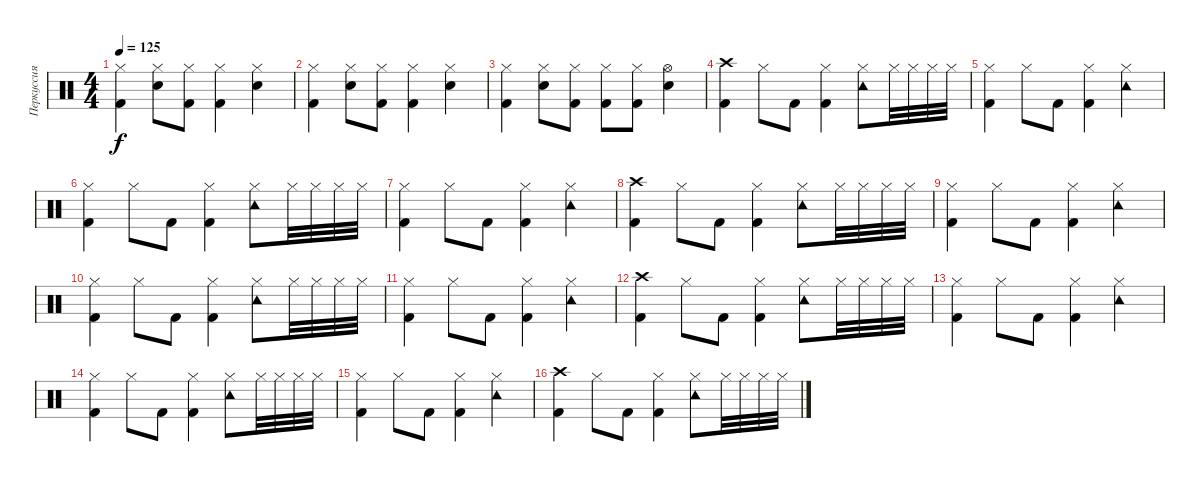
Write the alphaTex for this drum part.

\track ("Перкуссия" "Перкуссия") {instrument percussion}
\staff {score}
\articulation defaults
\ts (4 4)
\tempo 125
\clef neutral
\ks c
("Hi-Hat (closed)" "Kick (hit) 2").4{dy f} ("Hi-Hat (closed)" "Snare (hit) 2").8 ("Hi-Hat (closed)" "Kick (hit) 2").8 ("Hi-Hat (closed)" "Kick (hit) 2").4 ("Hi-Hat (closed)" "Snare (hit) 2").4 |
("Hi-Hat (closed)" "Kick (hit) 2").4 ("Hi-Hat (closed)" "Snare (hit) 2").8 ("Hi-Hat (closed)" "Kick (hit) 2").8 ("Hi-Hat (closed)" "Kick (hit) 2").4 ("Hi-Hat (closed)" "Snare (hit) 2").4 |
("Hi-Hat (closed)" "Kick (hit) 2").4 ("Hi-Hat (closed)" "Snare (hit) 2").8 ("Hi-Hat (closed)" "Kick (hit) 2").8 ("Hi-Hat (closed)" "Kick (hit) 2").8 ("Hi-Hat (closed)" "Kick (hit) 2").8 ("Hi-Hat (open)" "Snare (hit) 2").4 |
("Crash high (hit)" "Kick (hit) 2").4 "Hi-Hat (closed)".8 "Kick (hit) 2".8 ("Hi-Hat (closed)" "Kick (hit) 2").4 ("Hi-Hat (closed)" "Tambourine (hit)").8 "Hi-Hat (closed)".32 "Hi-Hat (closed)".32 "Hi-Hat (closed)".32 "Hi-Hat (closed)".32 |
("Hi-Hat (closed)" "Kick (hit) 2").4 "Hi-Hat (closed)".8 "Kick (hit) 2".8 ("Hi-Hat (closed)" "Kick (hit) 2").4 ("Hi-Hat (closed)" "Tambourine (hit)").4 |
("Hi-Hat (closed)" "Kick (hit) 2").4 "Hi-Hat (closed)".8 "Kick (hit) 2".8 ("Hi-Hat (closed)" "Kick (hit) 2").4 ("Hi-Hat (closed)" "Tambourine (hit)").8 "Hi-Hat (closed)".32 "Hi-Hat (closed)".32 "Hi-Hat (closed)".32 "Hi-Hat (closed)".32 |
("Hi-Hat (closed)" "Kick (hit) 2").4 "Hi-Hat (closed)".8 "Kick (hit) 2".8 ("Hi-Hat (closed)" "Kick (hit) 2").4 ("Hi-Hat (closed)" "Tambourine (hit)").4 |
("Crash high (hit)" "Kick (hit) 2").4 "Hi-Hat (closed)".8 "Kick (hit) 2".8 ("Hi-Hat (closed)" "Kick (hit) 2").4 ("Hi-Hat (closed)" "Tambourine (hit)").8 "Hi-Hat (closed)".32 "Hi-Hat (closed)".32 "Hi-Hat (closed)".32 "Hi-Hat (closed)".32 |
("Hi-Hat (closed)" "Kick (hit) 2").4 "Hi-Hat (closed)".8 "Kick (hit) 2".8 ("Hi-Hat (closed)" "Kick (hit) 2").4 ("Hi-Hat (closed)" "Tambourine (hit)").4 |
("Hi-Hat (closed)" "Kick (hit) 2").4 "Hi-Hat (closed)".8 "Kick (hit) 2".8 ("Hi-Hat (closed)" "Kick (hit) 2").4 ("Hi-Hat (closed)" "Tambourine (hit)").8 "Hi-Hat (closed)".32 "Hi-Hat (closed)".32 "Hi-Hat (closed)".32 "Hi-Hat (closed)".32 |
("Hi-Hat (closed)" "Kick (hit) 2").4 "Hi-Hat (closed)".8 "Kick (hit) 2".8 ("Hi-Hat (closed)" "Kick (hit) 2").4 ("Hi-Hat (closed)" "Tambourine (hit)").4 |
("Crash high (hit)" "Kick (hit) 2").4 "Hi-Hat (closed)".8 "Kick (hit) 2".8 ("Hi-Hat (closed)" "Kick (hit) 2").4 ("Hi-Hat (closed)" "Tambourine (hit)").8 "Hi-Hat (closed)".32 "Hi-Hat (closed)".32 "Hi-Hat (closed)".32 "Hi-Hat (closed)".32 |
("Hi-Hat (closed)" "Kick (hit) 2").4 "Hi-Hat (closed)".8 "Kick (hit) 2".8 ("Hi-Hat (closed)" "Kick (hit) 2").4 ("Hi-Hat (closed)" "Tambourine (hit)").4 |
("Hi-Hat (closed)" "Kick (hit) 2").4 "Hi-Hat (closed)".8 "Kick (hit) 2".8 ("Hi-Hat (closed)" "Kick (hit) 2").4 ("Hi-Hat (closed)" "Tambourine (hit)").8 "Hi-Hat (closed)".32 "Hi-Hat (closed)".32 "Hi-Hat (closed)".32 "Hi-Hat (closed)".32 |
("Hi-Hat (closed)" "Kick (hit) 2").4 "Hi-Hat (closed)".8 "Kick (hit) 2".8 ("Hi-Hat (closed)" "Kick (hit) 2").4 ("Hi-Hat (closed)" "Tambourine (hit)").4 |
("Crash high (hit)" "Kick (hit) 2").4 "Hi-Hat (closed)".8 "Kick (hit) 2".8 ("Hi-Hat (closed)" "Kick (hit) 2").4 ("Hi-Hat (closed)" "Tambourine (hit)").8 "Hi-Hat (closed)".32 "Hi-Hat (closed)".32 "Hi-Hat (closed)".32 "Hi-Hat (closed)".32
